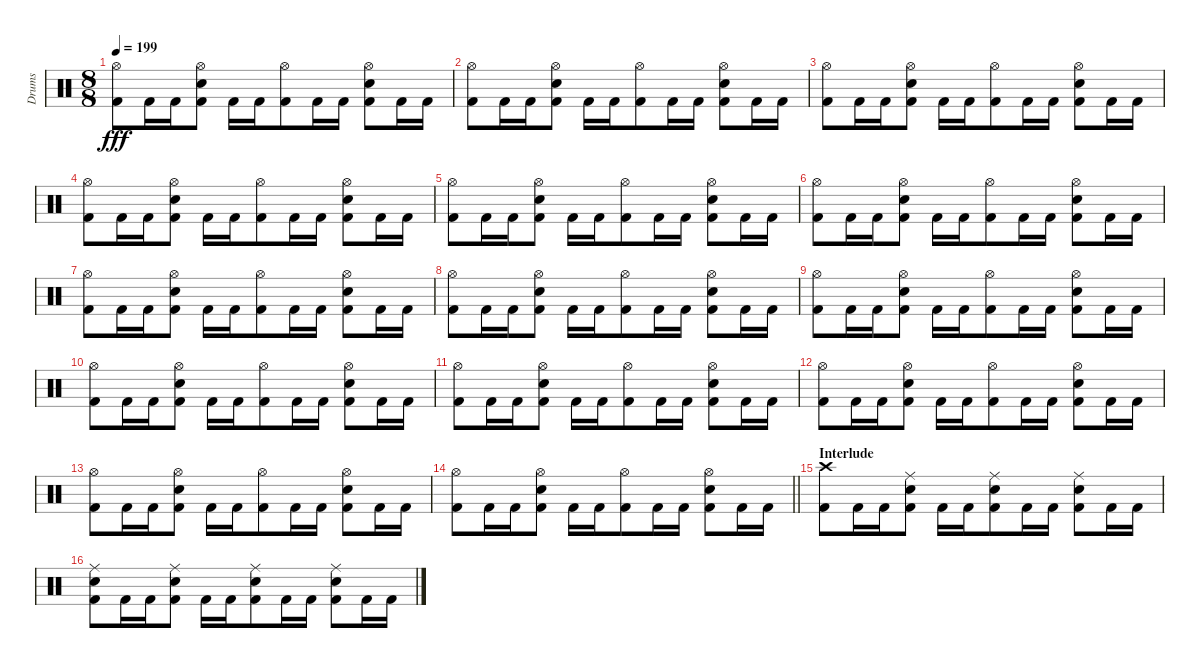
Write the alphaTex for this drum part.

\track ("Drums" "Drums") {instrument percussion}
\staff {score}
\articulation defaults
\ts (8 8)
\tempo 199
\clef neutral
\ks c
("Hi-Hat (open)" "Kick (hit) 2").8{dy fff} "Kick (hit) 2".16 "Kick (hit) 2".16 ("Hi-Hat (open)" "Snare (hit) 2" "Kick (hit) 2").8 "Kick (hit) 2".16 "Kick (hit) 2".16 ("Hi-Hat (open)" "Kick (hit) 2").8 "Kick (hit) 2".16 "Kick (hit) 2".16 ("Hi-Hat (open)" "Snare (hit) 2" "Kick (hit) 2").8 "Kick (hit) 2".16 "Kick (hit) 2".16 |
("Hi-Hat (open)" "Kick (hit) 2").8 "Kick (hit) 2".16 "Kick (hit) 2".16 ("Hi-Hat (open)" "Snare (hit) 2" "Kick (hit) 2").8 "Kick (hit) 2".16 "Kick (hit) 2".16 ("Hi-Hat (open)" "Kick (hit) 2").8 "Kick (hit) 2".16 "Kick (hit) 2".16 ("Hi-Hat (open)" "Snare (hit) 2" "Kick (hit) 2").8 "Kick (hit) 2".16 "Kick (hit) 2".16 |
("Hi-Hat (open)" "Kick (hit) 2").8 "Kick (hit) 2".16 "Kick (hit) 2".16 ("Hi-Hat (open)" "Snare (hit) 2" "Kick (hit) 2").8 "Kick (hit) 2".16 "Kick (hit) 2".16 ("Hi-Hat (open)" "Kick (hit) 2").8 "Kick (hit) 2".16 "Kick (hit) 2".16 ("Hi-Hat (open)" "Snare (hit) 2" "Kick (hit) 2").8 "Kick (hit) 2".16 "Kick (hit) 2".16 |
("Hi-Hat (open)" "Kick (hit) 2").8 "Kick (hit) 2".16 "Kick (hit) 2".16 ("Hi-Hat (open)" "Snare (hit) 2" "Kick (hit) 2").8 "Kick (hit) 2".16 "Kick (hit) 2".16 ("Hi-Hat (open)" "Kick (hit) 2").8 "Kick (hit) 2".16 "Kick (hit) 2".16 ("Hi-Hat (open)" "Snare (hit) 2" "Kick (hit) 2").8 "Kick (hit) 2".16 "Kick (hit) 2".16 |
("Hi-Hat (open)" "Kick (hit) 2").8 "Kick (hit) 2".16 "Kick (hit) 2".16 ("Hi-Hat (open)" "Snare (hit) 2" "Kick (hit) 2").8 "Kick (hit) 2".16 "Kick (hit) 2".16 ("Hi-Hat (open)" "Kick (hit) 2").8 "Kick (hit) 2".16 "Kick (hit) 2".16 ("Hi-Hat (open)" "Snare (hit) 2" "Kick (hit) 2").8 "Kick (hit) 2".16 "Kick (hit) 2".16 |
("Hi-Hat (open)" "Kick (hit) 2").8 "Kick (hit) 2".16 "Kick (hit) 2".16 ("Hi-Hat (open)" "Snare (hit) 2" "Kick (hit) 2").8 "Kick (hit) 2".16 "Kick (hit) 2".16 ("Hi-Hat (open)" "Kick (hit) 2").8 "Kick (hit) 2".16 "Kick (hit) 2".16 ("Hi-Hat (open)" "Snare (hit) 2" "Kick (hit) 2").8 "Kick (hit) 2".16 "Kick (hit) 2".16 |
("Hi-Hat (open)" "Kick (hit) 2").8 "Kick (hit) 2".16 "Kick (hit) 2".16 ("Hi-Hat (open)" "Snare (hit) 2" "Kick (hit) 2").8 "Kick (hit) 2".16 "Kick (hit) 2".16 ("Hi-Hat (open)" "Kick (hit) 2").8 "Kick (hit) 2".16 "Kick (hit) 2".16 ("Hi-Hat (open)" "Snare (hit) 2" "Kick (hit) 2").8 "Kick (hit) 2".16 "Kick (hit) 2".16 |
("Hi-Hat (open)" "Kick (hit) 2").8 "Kick (hit) 2".16 "Kick (hit) 2".16 ("Hi-Hat (open)" "Snare (hit) 2" "Kick (hit) 2").8 "Kick (hit) 2".16 "Kick (hit) 2".16 ("Hi-Hat (open)" "Kick (hit) 2").8 "Kick (hit) 2".16 "Kick (hit) 2".16 ("Hi-Hat (open)" "Snare (hit) 2" "Kick (hit) 2").8 "Kick (hit) 2".16 "Kick (hit) 2".16 |
("Hi-Hat (open)" "Kick (hit) 2").8 "Kick (hit) 2".16 "Kick (hit) 2".16 ("Hi-Hat (open)" "Snare (hit) 2" "Kick (hit) 2").8 "Kick (hit) 2".16 "Kick (hit) 2".16 ("Hi-Hat (open)" "Kick (hit) 2").8 "Kick (hit) 2".16 "Kick (hit) 2".16 ("Hi-Hat (open)" "Snare (hit) 2" "Kick (hit) 2").8 "Kick (hit) 2".16 "Kick (hit) 2".16 |
("Hi-Hat (open)" "Kick (hit) 2").8 "Kick (hit) 2".16 "Kick (hit) 2".16 ("Hi-Hat (open)" "Snare (hit) 2" "Kick (hit) 2").8 "Kick (hit) 2".16 "Kick (hit) 2".16 ("Hi-Hat (open)" "Kick (hit) 2").8 "Kick (hit) 2".16 "Kick (hit) 2".16 ("Hi-Hat (open)" "Snare (hit) 2" "Kick (hit) 2").8 "Kick (hit) 2".16 "Kick (hit) 2".16 |
("Hi-Hat (open)" "Kick (hit) 2").8 "Kick (hit) 2".16 "Kick (hit) 2".16 ("Hi-Hat (open)" "Snare (hit) 2" "Kick (hit) 2").8 "Kick (hit) 2".16 "Kick (hit) 2".16 ("Hi-Hat (open)" "Kick (hit) 2").8 "Kick (hit) 2".16 "Kick (hit) 2".16 ("Hi-Hat (open)" "Snare (hit) 2" "Kick (hit) 2").8 "Kick (hit) 2".16 "Kick (hit) 2".16 |
("Hi-Hat (open)" "Kick (hit) 2").8 "Kick (hit) 2".16 "Kick (hit) 2".16 ("Hi-Hat (open)" "Snare (hit) 2" "Kick (hit) 2").8 "Kick (hit) 2".16 "Kick (hit) 2".16 ("Hi-Hat (open)" "Kick (hit) 2").8 "Kick (hit) 2".16 "Kick (hit) 2".16 ("Hi-Hat (open)" "Snare (hit) 2" "Kick (hit) 2").8 "Kick (hit) 2".16 "Kick (hit) 2".16 |
("Hi-Hat (open)" "Kick (hit) 2").8 "Kick (hit) 2".16 "Kick (hit) 2".16 ("Hi-Hat (open)" "Snare (hit) 2" "Kick (hit) 2").8 "Kick (hit) 2".16 "Kick (hit) 2".16 ("Hi-Hat (open)" "Kick (hit) 2").8 "Kick (hit) 2".16 "Kick (hit) 2".16 ("Hi-Hat (open)" "Snare (hit) 2" "Kick (hit) 2").8 "Kick (hit) 2".16 "Kick (hit) 2".16 |
\barLineRight lightlight
("Hi-Hat (open)" "Kick (hit) 2").8 "Kick (hit) 2".16 "Kick (hit) 2".16 ("Hi-Hat (open)" "Snare (hit) 2" "Kick (hit) 2").8 "Kick (hit) 2".16 "Kick (hit) 2".16 ("Hi-Hat (open)" "Kick (hit) 2").8 "Kick (hit) 2".16 "Kick (hit) 2".16 ("Hi-Hat (open)" "Snare (hit) 2" "Kick (hit) 2").8 "Kick (hit) 2".16 "Kick (hit) 2".16 |
\section ("" "Interlude")
("Crash high (hit)" "Kick (hit) 2").8 "Kick (hit) 2".16 "Kick (hit) 2".16 ("Ride (middle)" "Snare (hit) 2" "Kick (hit) 2").8 "Kick (hit) 2".16 "Kick (hit) 2".16 ("Ride (middle)" "Snare (hit) 2" "Kick (hit) 2").8 "Kick (hit) 2".16 "Kick (hit) 2".16 ("Ride (middle)" "Snare (hit) 2" "Kick (hit) 2").8 "Kick (hit) 2".16 "Kick (hit) 2".16 |
("Ride (middle)" "Snare (hit) 2" "Kick (hit) 2").8 "Kick (hit) 2".16 "Kick (hit) 2".16 ("Ride (middle)" "Snare (hit) 2" "Kick (hit) 2").8 "Kick (hit) 2".16 "Kick (hit) 2".16 ("Ride (middle)" "Snare (hit) 2" "Kick (hit) 2").8 "Kick (hit) 2".16 "Kick (hit) 2".16 ("Ride (middle)" "Snare (hit) 2" "Kick (hit) 2").8 "Kick (hit) 2".16 "Kick (hit) 2".16
